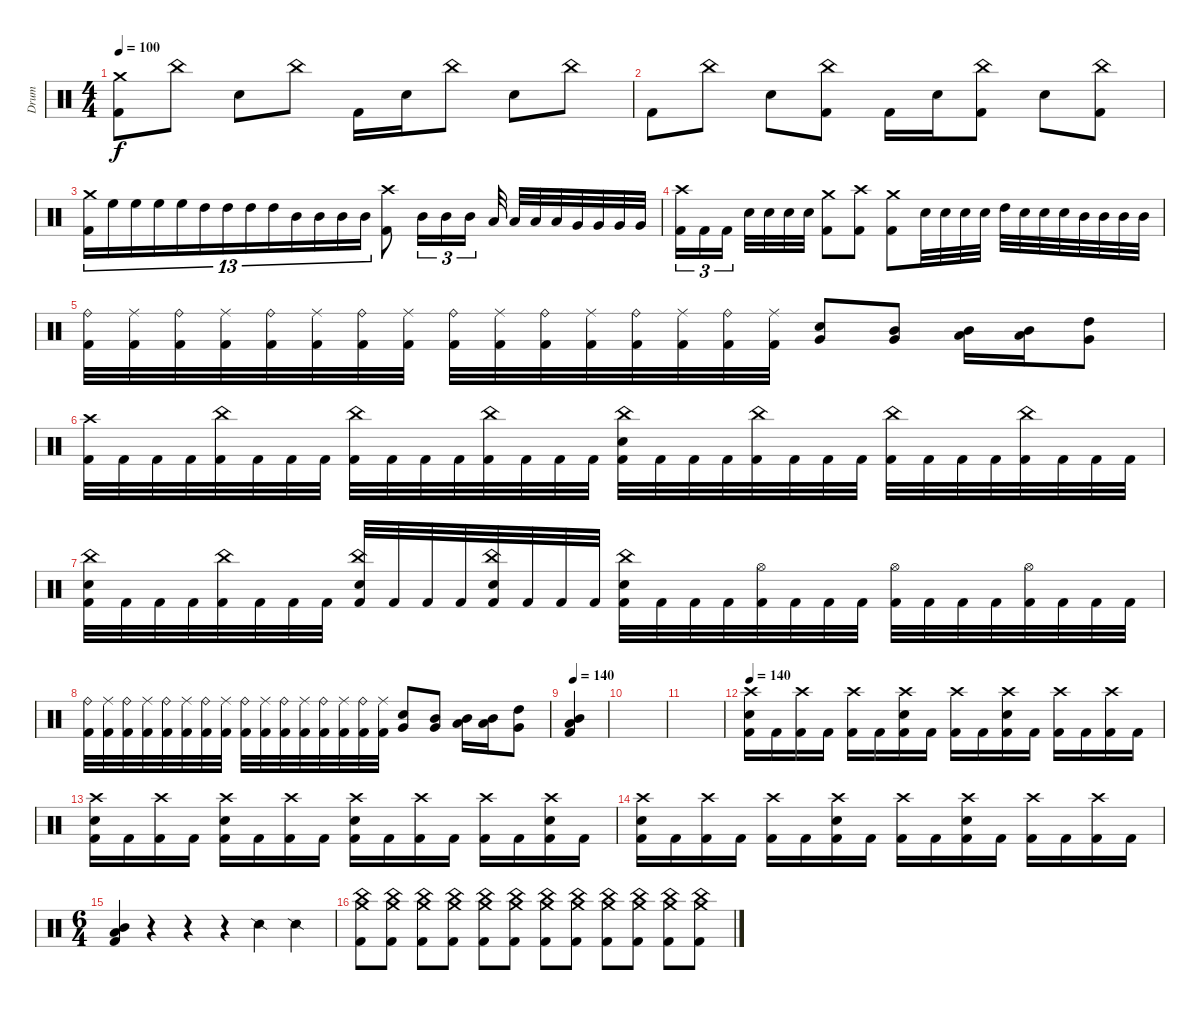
\track ("Drum" "Drum") {instrument percussion}
\staff {score}
\articulation defaults
\ts (4 4)
\tempo 100
\clef neutral
\ks c
("Crash medium (hit)" "Kick (hit) 2").8{dy f} "China (hit)".8 "Snare (hit) 2".8 "China (hit)".8 "Kick (hit) 2".16 "Snare (hit) 2".16 "China (hit)".8 "Snare (hit) 2".8 "China (hit)".8 |
"Kick (hit) 2".8 "China (hit)".8 "Snare (hit) 2".8 ("China (hit)" "Kick (hit) 2").8 "Kick (hit) 2".16 "Snare (hit) 2".16 ("China (hit)" "Kick (hit) 2").8 "Snare (hit) 2".8 ("China (hit)" "Kick (hit) 2").8 |
("Crash medium (hit)" "Kick (hit) 2").16{tu (13 8)} "High Floor Tom (hit)".16{tu (13 8)} "High Floor Tom (hit)".16{tu (13 8)} "High Floor Tom (hit)".16{tu (13 8)} "High Floor Tom (hit)".16{tu (13 8)} "High Tom (hit)".16{tu (13 8)} "High Tom (hit)".16{tu (13 8)} "High Tom (hit)".16{tu (13 8)} "High Tom (hit)".16{tu (13 8)} "Mid Tom (hit)".16{tu (13 8)} "Mid Tom (hit)".16{tu (13 8)} "Mid Tom (hit)".16{tu (13 8)} "Mid Tom (hit)".16{tu (13 8)} ("Crash high (hit)" "Kick (hit) 2").8 "Mid Tom (hit)".16{tu (3 2)} "Mid Tom (hit)".16{tu (3 2)} "Mid Tom (hit)".16{tu (3 2)} "Low Tom (hit)".32 "Low Tom (hit)".32 "Low Tom (hit)".32 "Low Tom (hit)".32 "Very Low Tom (hit)".32 "Very Low Tom (hit)".32 "Very Low Tom (hit)".32 "Very Low Tom (hit)".32 |
("Crash high (hit)" "Kick (hit) 2").16{tu (3 2)} "Kick (hit) 2".16{tu (3 2)} "Kick (hit) 2".16{tu (3 2) beam splitsecondary} "Snare (hit) 2".32 "Snare (hit) 2".32 "Snare (hit) 2".32 "Snare (hit) 2".32 ("Crash medium (hit)" "Kick (hit) 2").8 ("Crash high (hit)" "Kick (hit) 2").8 ("Crash medium (hit)" "Kick (hit) 2").8 "Snare (hit) 2".32 "Snare (hit) 2".32 "Snare (hit) 2".32 "Snare (hit) 2".32 "High Tom (hit)".32 "Snare (hit) 2".32 "Snare (hit) 2".32 "Snare (hit) 2".32 "Mid Tom (hit)".32 "Mid Tom (hit)".32 "Mid Tom (hit)".32 "Mid Tom (hit)".32 |
("Ride (bell)" "Kick (hit) 2").32 ("Ride (middle)" "Kick (hit) 2").32 ("Ride (bell)" "Kick (hit) 2").32 ("Ride (middle)" "Kick (hit) 2").32 ("Ride (bell)" "Kick (hit) 2").32 ("Ride (middle)" "Kick (hit) 2").32 ("Ride (bell)" "Kick (hit) 2").32 ("Ride (middle)" "Kick (hit) 2").32 ("Ride (bell)" "Kick (hit) 2").32 ("Ride (middle)" "Kick (hit) 2").32 ("Ride (bell)" "Kick (hit) 2").32 ("Ride (middle)" "Kick (hit) 2").32 ("Ride (bell)" "Kick (hit) 2").32 ("Ride (middle)" "Kick (hit) 2").32 ("Ride (bell)" "Kick (hit) 2").32 ("Ride (middle)" "Kick (hit) 2").32 ("Snare (hit) 2" "Very Low Tom (hit)").8 ("Mid Tom (hit)" "Very Low Tom (hit)").8 ("Mid Tom (hit)" "Low Tom (hit)").16 ("Mid Tom (hit)" "Low Tom (hit)").16 ("High Tom (hit)" "Very Low Tom (hit)").8 |
("Crash high (hit)" "Kick (hit) 2").32 "Kick (hit) 2".32 "Kick (hit) 2".32 "Kick (hit) 2".32 ("China (hit)" "Kick (hit) 2").32 "Kick (hit) 2".32 "Kick (hit) 2".32 "Kick (hit) 2".32 ("China (hit)" "Kick (hit) 2").32 "Kick (hit) 2".32 "Kick (hit) 2".32 "Kick (hit) 2".32 ("China (hit)" "Kick (hit) 2").32 "Kick (hit) 2".32 "Kick (hit) 2".32 "Kick (hit) 2".32 ("China (hit)" "Snare (hit) 2" "Kick (hit) 2").32 "Kick (hit) 2".32 "Kick (hit) 2".32 "Kick (hit) 2".32 ("China (hit)" "Kick (hit) 2").32 "Kick (hit) 2".32 "Kick (hit) 2".32 "Kick (hit) 2".32 ("China (hit)" "Kick (hit) 2").32 "Kick (hit) 2".32 "Kick (hit) 2".32 "Kick (hit) 2".32 ("China (hit)" "Kick (hit) 2").32 "Kick (hit) 2".32 "Kick (hit) 2".32 "Kick (hit) 2".32 |
("China (hit)" "Snare (hit) 2" "Kick (hit) 2").32 "Kick (hit) 2".32 "Kick (hit) 2".32 "Kick (hit) 2".32 ("China (hit)" "Kick (hit) 2").32 "Kick (hit) 2".32 "Kick (hit) 2".32 "Kick (hit) 2".32 ("China (hit)" "Snare (hit) 2" "Kick (hit) 2").32 "Kick (hit) 2".32 "Kick (hit) 2".32 "Kick (hit) 2".32 ("China (hit)" "Snare (hit) 2" "Kick (hit) 2").32 "Kick (hit) 2".32 "Kick (hit) 2".32 "Kick (hit) 2".32 ("China (hit)" "Snare (hit) 2" "Kick (hit) 2").32 "Kick (hit) 2".32 "Kick (hit) 2".32 "Kick (hit) 2".32 ("Hi-Hat (open)" "Kick (hit) 2").32 "Kick (hit) 2".32 "Kick (hit) 2".32 "Kick (hit) 2".32 ("Hi-Hat (open)" "Kick (hit) 2").32 "Kick (hit) 2".32 "Kick (hit) 2".32 "Kick (hit) 2".32 ("Hi-Hat (open)" "Kick (hit) 2").32 "Kick (hit) 2".32 "Kick (hit) 2".32 "Kick (hit) 2".32 |
("Ride (bell)" "Kick (hit) 2").32 ("Ride (middle)" "Kick (hit) 2").32 ("Ride (bell)" "Kick (hit) 2").32 ("Ride (middle)" "Kick (hit) 2").32 ("Ride (bell)" "Kick (hit) 2").32 ("Ride (middle)" "Kick (hit) 2").32 ("Ride (bell)" "Kick (hit) 2").32 ("Ride (middle)" "Kick (hit) 2").32 ("Ride (bell)" "Kick (hit) 2").32 ("Ride (middle)" "Kick (hit) 2").32 ("Ride (bell)" "Kick (hit) 2").32 ("Ride (middle)" "Kick (hit) 2").32 ("Ride (bell)" "Kick (hit) 2").32 ("Ride (middle)" "Kick (hit) 2").32 ("Ride (bell)" "Kick (hit) 2").32 ("Ride (middle)" "Kick (hit) 2").32 ("Snare (hit) 2" "Very Low Tom (hit)").8 ("Mid Tom (hit)" "Very Low Tom (hit)").8 ("Mid Tom (hit)" "Low Tom (hit)").16 ("Mid Tom (hit)" "Low Tom (hit)").16 ("High Tom (hit)" "Very Low Tom (hit)").8 |
\tempo 140
("Kick (hit) 2" "Mid Tom (hit)" "Low Tom (hit)").4 |
|
|
\tempo 140
("Crash high (hit)" "Snare (hit) 2" "Kick (hit) 2").16 "Kick (hit) 2".16 ("Crash high (hit)" "Kick (hit) 2").16 "Kick (hit) 2".16 ("Crash high (hit)" "Kick (hit) 2").16 "Kick (hit) 2".16 ("Crash high (hit)" "Snare (hit) 2" "Kick (hit) 2").16 "Kick (hit) 2".16 ("Crash high (hit)" "Kick (hit) 2").16 "Kick (hit) 2".16 ("Crash high (hit)" "Snare (hit) 2" "Kick (hit) 2").16 "Kick (hit) 2".16 ("Crash high (hit)" "Kick (hit) 2").16 "Kick (hit) 2".16 ("Crash high (hit)" "Kick (hit) 2").16 "Kick (hit) 2".16 |
("Crash high (hit)" "Snare (hit) 2" "Kick (hit) 2").16 "Kick (hit) 2".16 ("Crash high (hit)" "Kick (hit) 2").16 "Kick (hit) 2".16 ("Crash high (hit)" "Snare (hit) 2" "Kick (hit) 2").16 "Kick (hit) 2".16 ("Crash high (hit)" "Kick (hit) 2").16 "Kick (hit) 2".16 ("Crash high (hit)" "Snare (hit) 2" "Kick (hit) 2").16 "Kick (hit) 2".16 ("Crash high (hit)" "Kick (hit) 2").16 "Kick (hit) 2".16 ("Crash high (hit)" "Kick (hit) 2").16 "Kick (hit) 2".16 ("Crash high (hit)" "Snare (hit) 2" "Kick (hit) 2").16 "Kick (hit) 2".16 |
("Crash high (hit)" "Snare (hit) 2" "Kick (hit) 2").16 "Kick (hit) 2".16 ("Crash high (hit)" "Kick (hit) 2").16 "Kick (hit) 2".16 ("Crash high (hit)" "Kick (hit) 2").16 "Kick (hit) 2".16 ("Crash high (hit)" "Snare (hit) 2" "Kick (hit) 2").16 "Kick (hit) 2".16 ("Crash high (hit)" "Kick (hit) 2").16 "Kick (hit) 2".16 ("Crash high (hit)" "Snare (hit) 2" "Kick (hit) 2").16 "Kick (hit) 2".16 ("Crash high (hit)" "Kick (hit) 2").16 "Kick (hit) 2".16 ("Crash high (hit)" "Kick (hit) 2").16 "Kick (hit) 2".16 |
\ts (6 4)
("Kick (hit) 2" "Mid Tom (hit)" "Low Tom (hit)").4 r.4 r.4 r.4 "Snare (side stick) 2".4 "Snare (side stick) 2".4 |
("China (hit)" "Crash medium (hit)" "Kick (hit) 2").8 ("China (hit)" "Crash medium (hit)" "Kick (hit) 2").8 ("China (hit)" "Crash medium (hit)" "Kick (hit) 2").8 ("China (hit)" "Crash medium (hit)" "Kick (hit) 2").8 ("China (hit)" "Crash medium (hit)" "Kick (hit) 2").8 ("China (hit)" "Crash medium (hit)" "Kick (hit) 2").8 ("China (hit)" "Crash medium (hit)" "Kick (hit) 2").8 ("China (hit)" "Crash medium (hit)" "Kick (hit) 2").8 ("China (hit)" "Crash medium (hit)" "Kick (hit) 2").8 ("China (hit)" "Crash medium (hit)" "Kick (hit) 2").8 ("China (hit)" "Crash medium (hit)" "Kick (hit) 2").8 ("China (hit)" "Crash medium (hit)" "Kick (hit) 2").8
